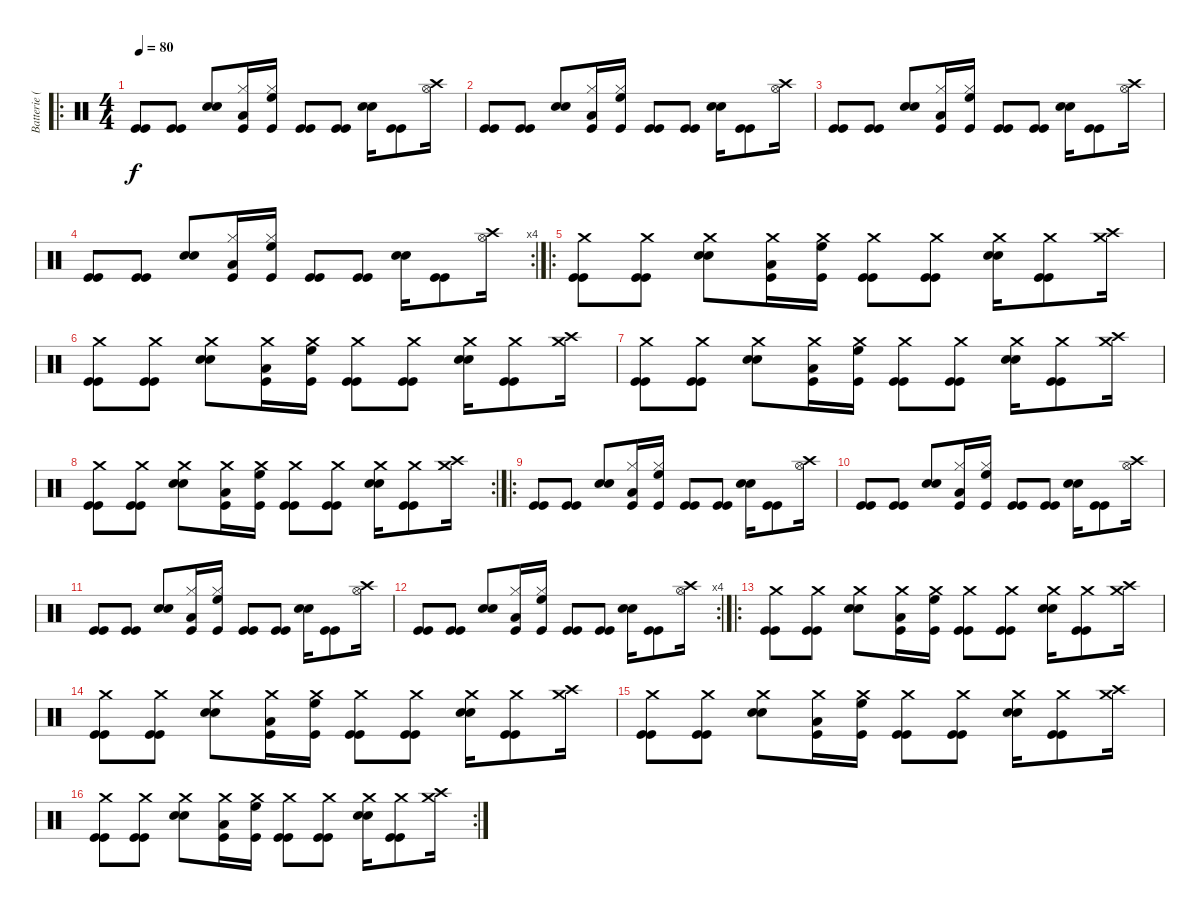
\track ("Batterie (dark)" "Batterie (") {instrument percussion}
\staff {score}
\articulation defaults
\ro
\ts (4 4)
\tempo 80
\clef neutral
\ks c
("Kick (hit)" "Kick (hit)").8{dy f} ("Kick (hit)" "Kick (hit)").8 ("Snare (hit) 2" "Snare (hit) 2").8 ("Hi-Hat (closed)" "Kick (hit)" "Low Tom (hit)").16 ("Hi-Hat (closed)" "Kick (hit)" "High Floor Tom (hit)").16 ("Kick (hit)" "Kick (hit)").8 ("Kick (hit)" "Kick (hit)").8 ("Snare (hit) 2" "Snare (hit) 2").16 ("Kick (hit)" "Kick (hit)").8 ("Crash high (hit)" "Hi-Hat (open)").16 |
("Kick (hit)" "Kick (hit)").8 ("Kick (hit)" "Kick (hit)").8 ("Snare (hit) 2" "Snare (hit) 2").8 ("Hi-Hat (closed)" "Kick (hit)" "Low Tom (hit)").16 ("Hi-Hat (closed)" "Kick (hit)" "High Floor Tom (hit)").16 ("Kick (hit)" "Kick (hit)").8 ("Kick (hit)" "Kick (hit)").8 ("Snare (hit) 2" "Snare (hit) 2").16 ("Kick (hit)" "Kick (hit)").8 ("Crash high (hit)" "Hi-Hat (open)").16 |
("Kick (hit)" "Kick (hit)").8 ("Kick (hit)" "Kick (hit)").8 ("Snare (hit) 2" "Snare (hit) 2").8 ("Hi-Hat (closed)" "Kick (hit)" "Low Tom (hit)").16 ("Hi-Hat (closed)" "Kick (hit)" "High Floor Tom (hit)").16 ("Kick (hit)" "Kick (hit)").8 ("Kick (hit)" "Kick (hit)").8 ("Snare (hit) 2" "Snare (hit) 2").16 ("Kick (hit)" "Kick (hit)").8 ("Crash high (hit)" "Hi-Hat (open)").16 |
\rc 4
("Kick (hit)" "Kick (hit)").8 ("Kick (hit)" "Kick (hit)").8 ("Snare (hit) 2" "Snare (hit) 2").8 ("Hi-Hat (closed)" "Kick (hit)" "Low Tom (hit)").16 ("Hi-Hat (closed)" "Kick (hit)" "High Floor Tom (hit)").16 ("Kick (hit)" "Kick (hit)").8 ("Kick (hit)" "Kick (hit)").8 ("Snare (hit) 2" "Snare (hit) 2").16 ("Kick (hit)" "Kick (hit)").8 ("Crash high (hit)" "Hi-Hat (open)").16 |
\ro
("Crash medium (hit)" "Kick (hit)" "Kick (hit)").8 ("Crash medium (hit)" "Kick (hit)" "Kick (hit)").8 ("Crash medium (hit)" "Snare (hit) 2" "Snare (hit) 2").8 ("Crash medium (hit)" "Kick (hit)" "Low Tom (hit)").16 ("Crash medium (hit)" "Kick (hit)" "High Floor Tom (hit)").16 ("Crash medium (hit)" "Kick (hit)" "Kick (hit)").8 ("Crash medium (hit)" "Kick (hit)" "Kick (hit)").8 ("Crash medium (hit)" "Snare (hit) 2" "Snare (hit) 2").16 ("Crash medium (hit)" "Kick (hit)" "Kick (hit)").8 ("Crash medium (hit)" "Crash high (hit)").16 |
("Crash medium (hit)" "Kick (hit)" "Kick (hit)").8 ("Crash medium (hit)" "Kick (hit)" "Kick (hit)").8 ("Crash medium (hit)" "Snare (hit) 2" "Snare (hit) 2").8 ("Crash medium (hit)" "Kick (hit)" "Low Tom (hit)").16 ("Crash medium (hit)" "Kick (hit)" "High Floor Tom (hit)").16 ("Crash medium (hit)" "Kick (hit)" "Kick (hit)").8 ("Crash medium (hit)" "Kick (hit)" "Kick (hit)").8 ("Crash medium (hit)" "Snare (hit) 2" "Snare (hit) 2").16 ("Crash medium (hit)" "Kick (hit)" "Kick (hit)").8 ("Crash medium (hit)" "Crash high (hit)").16 |
("Crash medium (hit)" "Kick (hit)" "Kick (hit)").8 ("Crash medium (hit)" "Kick (hit)" "Kick (hit)").8 ("Crash medium (hit)" "Snare (hit) 2" "Snare (hit) 2").8 ("Crash medium (hit)" "Kick (hit)" "Low Tom (hit)").16 ("Crash medium (hit)" "Kick (hit)" "High Floor Tom (hit)").16 ("Crash medium (hit)" "Kick (hit)" "Kick (hit)").8 ("Crash medium (hit)" "Kick (hit)" "Kick (hit)").8 ("Crash medium (hit)" "Snare (hit) 2" "Snare (hit) 2").16 ("Crash medium (hit)" "Kick (hit)" "Kick (hit)").8 ("Crash medium (hit)" "Crash high (hit)").16 |
\rc 2
("Crash medium (hit)" "Kick (hit)" "Kick (hit)").8 ("Crash medium (hit)" "Kick (hit)" "Kick (hit)").8 ("Crash medium (hit)" "Snare (hit) 2" "Snare (hit) 2").8 ("Crash medium (hit)" "Kick (hit)" "Low Tom (hit)").16 ("Crash medium (hit)" "Kick (hit)" "High Floor Tom (hit)").16 ("Crash medium (hit)" "Kick (hit)" "Kick (hit)").8 ("Crash medium (hit)" "Kick (hit)" "Kick (hit)").8 ("Crash medium (hit)" "Snare (hit) 2" "Snare (hit) 2").16 ("Crash medium (hit)" "Kick (hit)" "Kick (hit)").8 ("Crash medium (hit)" "Crash high (hit)").16 |
\ro
("Kick (hit)" "Kick (hit)").8 ("Kick (hit)" "Kick (hit)").8 ("Snare (hit) 2" "Snare (hit) 2").8 ("Hi-Hat (closed)" "Kick (hit)" "Low Tom (hit)").16 ("Hi-Hat (closed)" "Kick (hit)" "High Floor Tom (hit)").16 ("Kick (hit)" "Kick (hit)").8 ("Kick (hit)" "Kick (hit)").8 ("Snare (hit) 2" "Snare (hit) 2").16 ("Kick (hit)" "Kick (hit)").8 ("Crash high (hit)" "Hi-Hat (open)").16 |
("Kick (hit)" "Kick (hit)").8 ("Kick (hit)" "Kick (hit)").8 ("Snare (hit) 2" "Snare (hit) 2").8 ("Hi-Hat (closed)" "Kick (hit)" "Low Tom (hit)").16 ("Hi-Hat (closed)" "Kick (hit)" "High Floor Tom (hit)").16 ("Kick (hit)" "Kick (hit)").8 ("Kick (hit)" "Kick (hit)").8 ("Snare (hit) 2" "Snare (hit) 2").16 ("Kick (hit)" "Kick (hit)").8 ("Crash high (hit)" "Hi-Hat (open)").16 |
("Kick (hit)" "Kick (hit)").8 ("Kick (hit)" "Kick (hit)").8 ("Snare (hit) 2" "Snare (hit) 2").8 ("Hi-Hat (closed)" "Kick (hit)" "Low Tom (hit)").16 ("Hi-Hat (closed)" "Kick (hit)" "High Floor Tom (hit)").16 ("Kick (hit)" "Kick (hit)").8 ("Kick (hit)" "Kick (hit)").8 ("Snare (hit) 2" "Snare (hit) 2").16 ("Kick (hit)" "Kick (hit)").8 ("Crash high (hit)" "Hi-Hat (open)").16 |
\rc 4
("Kick (hit)" "Kick (hit)").8 ("Kick (hit)" "Kick (hit)").8 ("Snare (hit) 2" "Snare (hit) 2").8 ("Hi-Hat (closed)" "Kick (hit)" "Low Tom (hit)").16 ("Hi-Hat (closed)" "Kick (hit)" "High Floor Tom (hit)").16 ("Kick (hit)" "Kick (hit)").8 ("Kick (hit)" "Kick (hit)").8 ("Snare (hit) 2" "Snare (hit) 2").16 ("Kick (hit)" "Kick (hit)").8 ("Crash high (hit)" "Hi-Hat (open)").16 |
\ro
("Crash medium (hit)" "Kick (hit)" "Kick (hit)").8 ("Crash medium (hit)" "Kick (hit)" "Kick (hit)").8 ("Crash medium (hit)" "Snare (hit) 2" "Snare (hit) 2").8 ("Crash medium (hit)" "Kick (hit)" "Low Tom (hit)").16 ("Crash medium (hit)" "Kick (hit)" "High Floor Tom (hit)").16 ("Crash medium (hit)" "Kick (hit)" "Kick (hit)").8 ("Crash medium (hit)" "Kick (hit)" "Kick (hit)").8 ("Crash medium (hit)" "Snare (hit) 2" "Snare (hit) 2").16 ("Crash medium (hit)" "Kick (hit)" "Kick (hit)").8 ("Crash medium (hit)" "Crash high (hit)").16 |
("Crash medium (hit)" "Kick (hit)" "Kick (hit)").8 ("Crash medium (hit)" "Kick (hit)" "Kick (hit)").8 ("Crash medium (hit)" "Snare (hit) 2" "Snare (hit) 2").8 ("Crash medium (hit)" "Kick (hit)" "Low Tom (hit)").16 ("Crash medium (hit)" "Kick (hit)" "High Floor Tom (hit)").16 ("Crash medium (hit)" "Kick (hit)" "Kick (hit)").8 ("Crash medium (hit)" "Kick (hit)" "Kick (hit)").8 ("Crash medium (hit)" "Snare (hit) 2" "Snare (hit) 2").16 ("Crash medium (hit)" "Kick (hit)" "Kick (hit)").8 ("Crash medium (hit)" "Crash high (hit)").16 |
("Crash medium (hit)" "Kick (hit)" "Kick (hit)").8 ("Crash medium (hit)" "Kick (hit)" "Kick (hit)").8 ("Crash medium (hit)" "Snare (hit) 2" "Snare (hit) 2").8 ("Crash medium (hit)" "Kick (hit)" "Low Tom (hit)").16 ("Crash medium (hit)" "Kick (hit)" "High Floor Tom (hit)").16 ("Crash medium (hit)" "Kick (hit)" "Kick (hit)").8 ("Crash medium (hit)" "Kick (hit)" "Kick (hit)").8 ("Crash medium (hit)" "Snare (hit) 2" "Snare (hit) 2").16 ("Crash medium (hit)" "Kick (hit)" "Kick (hit)").8 ("Crash medium (hit)" "Crash high (hit)").16 |
\rc 2
("Crash medium (hit)" "Kick (hit)" "Kick (hit)").8 ("Crash medium (hit)" "Kick (hit)" "Kick (hit)").8 ("Crash medium (hit)" "Snare (hit) 2" "Snare (hit) 2").8 ("Crash medium (hit)" "Kick (hit)" "Low Tom (hit)").16 ("Crash medium (hit)" "Kick (hit)" "High Floor Tom (hit)").16 ("Crash medium (hit)" "Kick (hit)" "Kick (hit)").8 ("Crash medium (hit)" "Kick (hit)" "Kick (hit)").8 ("Crash medium (hit)" "Snare (hit) 2" "Snare (hit) 2").16 ("Crash medium (hit)" "Kick (hit)" "Kick (hit)").8 ("Crash medium (hit)" "Crash high (hit)").16
